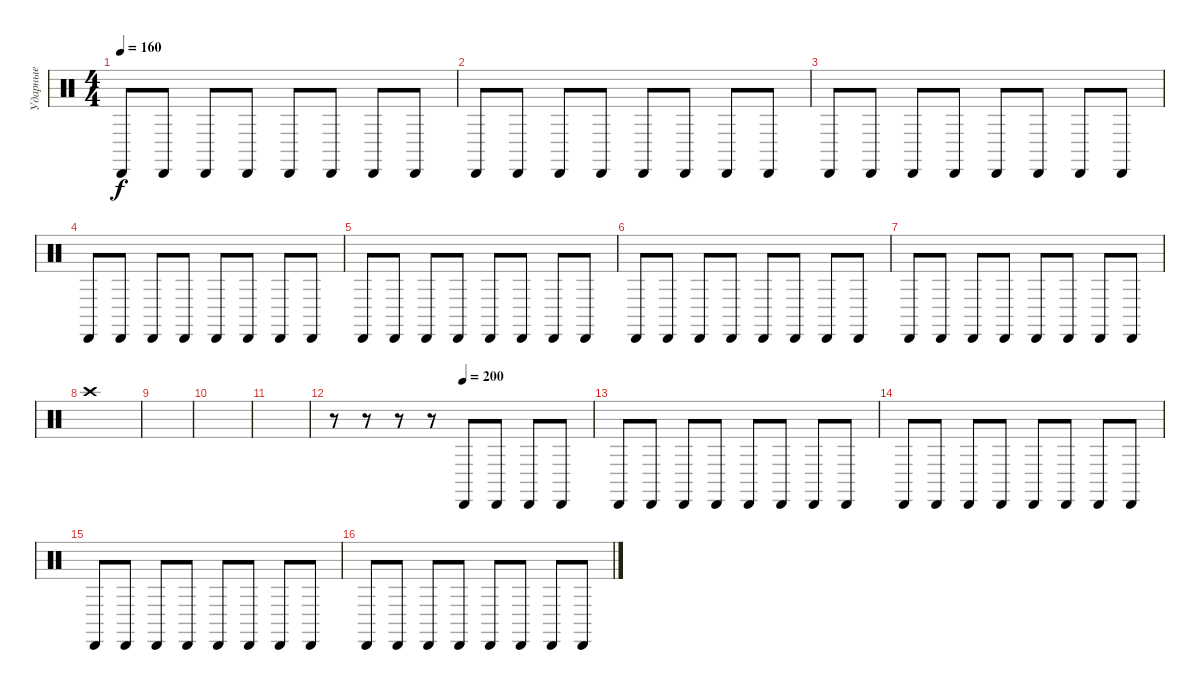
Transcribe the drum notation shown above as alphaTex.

\track ("Ударные" "Ударные") {instrument percussion}
\staff {score}
\articulation defaults
\ts (4 4)
\tempo 160
\clef neutral
\ks c "Cabasa (hit)".8{dy f} "Cabasa (hit)".8 "Cabasa (hit)".8 "Cabasa (hit)".8 "Cabasa (hit)".8 "Cabasa (hit)".8 "Cabasa (hit)".8 "Cabasa (hit)".8
|
"Cabasa (hit)".8 "Cabasa (hit)".8 "Cabasa (hit)".8 "Cabasa (hit)".8 "Cabasa (hit)".8 "Cabasa (hit)".8 "Cabasa (hit)".8 "Cabasa (hit)".8 |
"Cabasa (hit)".8 "Cabasa (hit)".8 "Cabasa (hit)".8 "Cabasa (hit)".8 "Cabasa (hit)".8 "Cabasa (hit)".8 "Cabasa (hit)".8 "Cabasa (hit)".8 |
"Cabasa (hit)".8 "Cabasa (hit)".8 "Cabasa (hit)".8 "Cabasa (hit)".8 "Cabasa (hit)".8 "Cabasa (hit)".8 "Cabasa (hit)".8 "Cabasa (hit)".8 |
"Cabasa (hit)".8 "Cabasa (hit)".8 "Cabasa (hit)".8 "Cabasa (hit)".8 "Cabasa (hit)".8 "Cabasa (hit)".8 "Cabasa (hit)".8 "Cabasa (hit)".8 |
"Cabasa (hit)".8 "Cabasa (hit)".8 "Cabasa (hit)".8 "Cabasa (hit)".8 "Cabasa (hit)".8 "Cabasa (hit)".8 "Cabasa (hit)".8 "Cabasa (hit)".8 |
"Cabasa (hit)".8 "Cabasa (hit)".8 "Cabasa (hit)".8 "Cabasa (hit)".8 "Cabasa (hit)".8 "Cabasa (hit)".8 "Cabasa (hit)".8 "Cabasa (hit)".8 |
"Crash high (hit)".1 |
|
|
|
\tempo (200 0.5)
r.8 r.8 r.8 r.8 "Cabasa (hit)".8 "Cabasa (hit)".8 "Cabasa (hit)".8 "Cabasa (hit)".8 |
"Cabasa (hit)".8 "Cabasa (hit)".8 "Cabasa (hit)".8 "Cabasa (hit)".8 "Cabasa (hit)".8 "Cabasa (hit)".8 "Cabasa (hit)".8 "Cabasa (hit)".8 |
"Cabasa (hit)".8 "Cabasa (hit)".8 "Cabasa (hit)".8 "Cabasa (hit)".8 "Cabasa (hit)".8 "Cabasa (hit)".8 "Cabasa (hit)".8 "Cabasa (hit)".8 |
"Cabasa (hit)".8 "Cabasa (hit)".8 "Cabasa (hit)".8 "Cabasa (hit)".8 "Cabasa (hit)".8 "Cabasa (hit)".8 "Cabasa (hit)".8 "Cabasa (hit)".8 |
"Cabasa (hit)".8 "Cabasa (hit)".8 "Cabasa (hit)".8 "Cabasa (hit)".8 "Cabasa (hit)".8 "Cabasa (hit)".8 "Cabasa (hit)".8 "Cabasa (hit)".8
